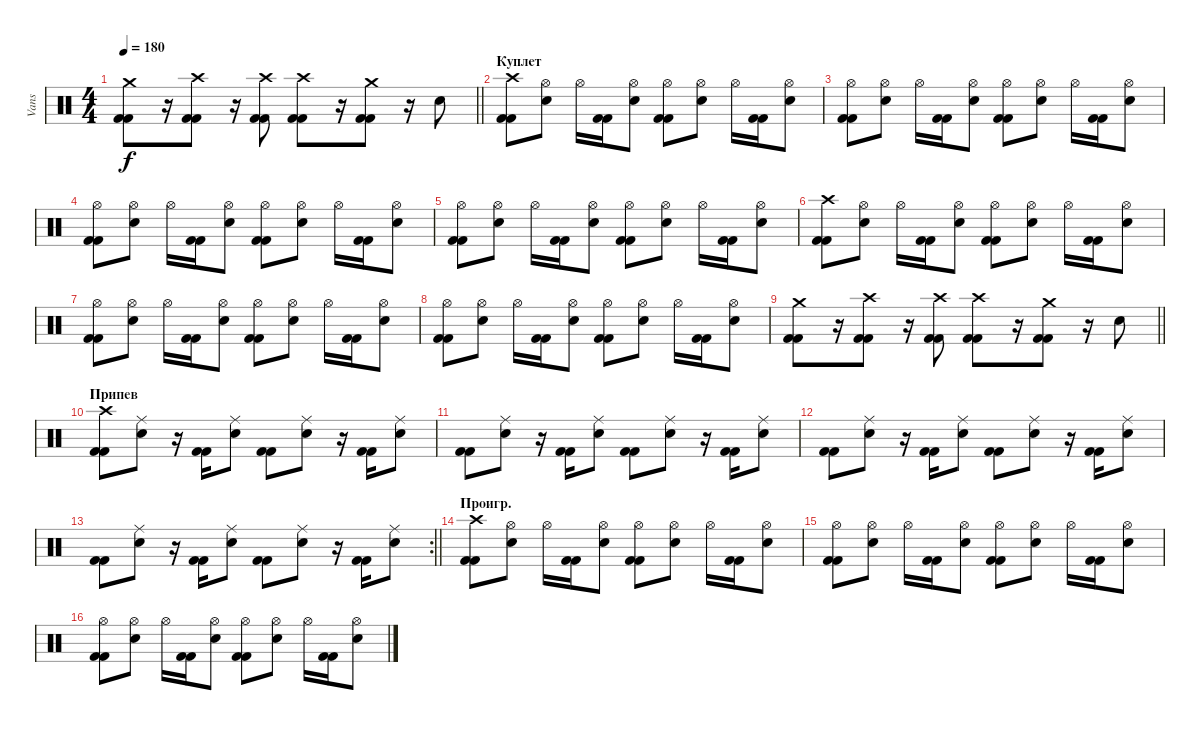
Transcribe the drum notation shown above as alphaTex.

\track ("Vans" "Vans") {instrument percussion}
\staff {score}
\articulation defaults
\ts (4 4)
\tempo 180
\clef neutral
\barLineRight lightlight
\ks c
("Crash medium (hit)" "Kick (hit) 2" "Kick (hit) 2").8{dy f} r.16 ("Crash high (hit)" "Kick (hit) 2" "Kick (hit) 2").8 r.16 ("Crash high (hit)" "Kick (hit) 2" "Kick (hit) 2").8 ("Crash high (hit)" "Kick (hit) 2" "Kick (hit) 2").8 r.16 ("Crash medium (hit)" "Kick (hit) 2" "Kick (hit) 2").8 r.16 "Snare (hit) 2".8 |
\section ("" "Куплет")
("Crash high (hit)" "Kick (hit) 2" "Kick (hit) 2").8 ("Hi-Hat (open)" "Snare (hit) 2").8 "Hi-Hat (open)".16 ("Kick (hit) 2" "Kick (hit) 2").16 ("Hi-Hat (open)" "Snare (hit) 2").8 ("Hi-Hat (open)" "Kick (hit) 2" "Kick (hit) 2").8 ("Hi-Hat (open)" "Snare (hit) 2").8 "Hi-Hat (open)".16 ("Kick (hit) 2" "Kick (hit) 2").16 ("Hi-Hat (open)" "Snare (hit) 2").8 |
("Hi-Hat (open)" "Kick (hit) 2" "Kick (hit) 2").8 ("Hi-Hat (open)" "Snare (hit) 2").8 "Hi-Hat (open)".16 ("Kick (hit) 2" "Kick (hit) 2").16 ("Hi-Hat (open)" "Snare (hit) 2").8 ("Hi-Hat (open)" "Kick (hit) 2" "Kick (hit) 2").8 ("Hi-Hat (open)" "Snare (hit) 2").8 "Hi-Hat (open)".16 ("Kick (hit) 2" "Kick (hit) 2").16 ("Hi-Hat (open)" "Snare (hit) 2").8 |
("Hi-Hat (open)" "Kick (hit) 2" "Kick (hit) 2").8 ("Hi-Hat (open)" "Snare (hit) 2").8 "Hi-Hat (open)".16 ("Kick (hit) 2" "Kick (hit) 2").16 ("Hi-Hat (open)" "Snare (hit) 2").8 ("Hi-Hat (open)" "Kick (hit) 2" "Kick (hit) 2").8 ("Hi-Hat (open)" "Snare (hit) 2").8 "Hi-Hat (open)".16 ("Kick (hit) 2" "Kick (hit) 2").16 ("Hi-Hat (open)" "Snare (hit) 2").8 |
("Hi-Hat (open)" "Kick (hit) 2" "Kick (hit) 2").8 ("Hi-Hat (open)" "Snare (hit) 2").8 "Hi-Hat (open)".16 ("Kick (hit) 2" "Kick (hit) 2").16 ("Hi-Hat (open)" "Snare (hit) 2").8 ("Hi-Hat (open)" "Kick (hit) 2" "Kick (hit) 2").8 ("Hi-Hat (open)" "Snare (hit) 2").8 "Hi-Hat (open)".16 ("Kick (hit) 2" "Kick (hit) 2").16 ("Hi-Hat (open)" "Snare (hit) 2").8 |
("Crash high (hit)" "Kick (hit) 2" "Kick (hit) 2").8 ("Hi-Hat (open)" "Snare (hit) 2").8 "Hi-Hat (open)".16 ("Kick (hit) 2" "Kick (hit) 2").16 ("Hi-Hat (open)" "Snare (hit) 2").8 ("Hi-Hat (open)" "Kick (hit) 2" "Kick (hit) 2").8 ("Hi-Hat (open)" "Snare (hit) 2").8 "Hi-Hat (open)".16 ("Kick (hit) 2" "Kick (hit) 2").16 ("Hi-Hat (open)" "Snare (hit) 2").8 |
("Hi-Hat (open)" "Kick (hit) 2" "Kick (hit) 2").8 ("Hi-Hat (open)" "Snare (hit) 2").8 "Hi-Hat (open)".16 ("Kick (hit) 2" "Kick (hit) 2").16 ("Hi-Hat (open)" "Snare (hit) 2").8 ("Hi-Hat (open)" "Kick (hit) 2" "Kick (hit) 2").8 ("Hi-Hat (open)" "Snare (hit) 2").8 "Hi-Hat (open)".16 ("Kick (hit) 2" "Kick (hit) 2").16 ("Hi-Hat (open)" "Snare (hit) 2").8 |
("Hi-Hat (open)" "Kick (hit) 2" "Kick (hit) 2").8 ("Hi-Hat (open)" "Snare (hit) 2").8 "Hi-Hat (open)".16 ("Kick (hit) 2" "Kick (hit) 2").16 ("Hi-Hat (open)" "Snare (hit) 2").8 ("Hi-Hat (open)" "Kick (hit) 2" "Kick (hit) 2").8 ("Hi-Hat (open)" "Snare (hit) 2").8 "Hi-Hat (open)".16 ("Kick (hit) 2" "Kick (hit) 2").16 ("Hi-Hat (open)" "Snare (hit) 2").8 |
\barLineRight lightlight
("Crash medium (hit)" "Kick (hit) 2" "Kick (hit) 2").8 r.16 ("Crash high (hit)" "Kick (hit) 2" "Kick (hit) 2").8 r.16 ("Crash high (hit)" "Kick (hit) 2" "Kick (hit) 2").8 ("Crash high (hit)" "Kick (hit) 2" "Kick (hit) 2").8 r.16 ("Crash medium (hit)" "Kick (hit) 2" "Kick (hit) 2").8 r.16 "Snare (hit) 2".8 |
\section ("" "Припев")
("Crash high (hit)" "Kick (hit) 2" "Kick (hit) 2").8 ("Ride (middle)" "Snare (hit) 2").8 r.16 ("Kick (hit) 2" "Kick (hit) 2").16 ("Ride (middle)" "Snare (hit) 2").8 ("Kick (hit) 2" "Kick (hit) 2").8 ("Ride (middle)" "Snare (hit) 2").8 r.16 ("Kick (hit) 2" "Kick (hit) 2").16 ("Ride (middle)" "Snare (hit) 2").8 |
("Kick (hit) 2" "Kick (hit) 2").8 ("Ride (middle)" "Snare (hit) 2").8 r.16 ("Kick (hit) 2" "Kick (hit) 2").16 ("Ride (middle)" "Snare (hit) 2").8 ("Kick (hit) 2" "Kick (hit) 2").8 ("Ride (middle)" "Snare (hit) 2").8 r.16 ("Kick (hit) 2" "Kick (hit) 2").16 ("Ride (middle)" "Snare (hit) 2").8 |
("Kick (hit) 2" "Kick (hit) 2").8 ("Ride (middle)" "Snare (hit) 2").8 r.16 ("Kick (hit) 2" "Kick (hit) 2").16 ("Ride (middle)" "Snare (hit) 2").8 ("Kick (hit) 2" "Kick (hit) 2").8 ("Ride (middle)" "Snare (hit) 2").8 r.16 ("Kick (hit) 2" "Kick (hit) 2").16 ("Ride (middle)" "Snare (hit) 2").8 |
\rc 2
\barLineRight lightlight
("Kick (hit) 2" "Kick (hit) 2").8 ("Ride (middle)" "Snare (hit) 2").8 r.16 ("Kick (hit) 2" "Kick (hit) 2").16 ("Ride (middle)" "Snare (hit) 2").8 ("Kick (hit) 2" "Kick (hit) 2").8 ("Ride (middle)" "Snare (hit) 2").8 r.16 ("Kick (hit) 2" "Kick (hit) 2").16 ("Ride (middle)" "Snare (hit) 2").8 |
\section ("" "Проигр.")
("Crash high (hit)" "Kick (hit) 2" "Kick (hit) 2").8 ("Hi-Hat (open)" "Snare (hit) 2").8 "Hi-Hat (open)".16 ("Kick (hit) 2" "Kick (hit) 2").16 ("Hi-Hat (open)" "Snare (hit) 2").8 ("Hi-Hat (open)" "Kick (hit) 2" "Kick (hit) 2").8 ("Hi-Hat (open)" "Snare (hit) 2").8 "Hi-Hat (open)".16 ("Kick (hit) 2" "Kick (hit) 2").16 ("Hi-Hat (open)" "Snare (hit) 2").8 |
("Hi-Hat (open)" "Kick (hit) 2" "Kick (hit) 2").8 ("Hi-Hat (open)" "Snare (hit) 2").8 "Hi-Hat (open)".16 ("Kick (hit) 2" "Kick (hit) 2").16 ("Hi-Hat (open)" "Snare (hit) 2").8 ("Hi-Hat (open)" "Kick (hit) 2" "Kick (hit) 2").8 ("Hi-Hat (open)" "Snare (hit) 2").8 "Hi-Hat (open)".16 ("Kick (hit) 2" "Kick (hit) 2").16 ("Hi-Hat (open)" "Snare (hit) 2").8 |
("Hi-Hat (open)" "Kick (hit) 2" "Kick (hit) 2").8 ("Hi-Hat (open)" "Snare (hit) 2").8 "Hi-Hat (open)".16 ("Kick (hit) 2" "Kick (hit) 2").16 ("Hi-Hat (open)" "Snare (hit) 2").8 ("Hi-Hat (open)" "Kick (hit) 2" "Kick (hit) 2").8 ("Hi-Hat (open)" "Snare (hit) 2").8 "Hi-Hat (open)".16 ("Kick (hit) 2" "Kick (hit) 2").16 ("Hi-Hat (open)" "Snare (hit) 2").8
